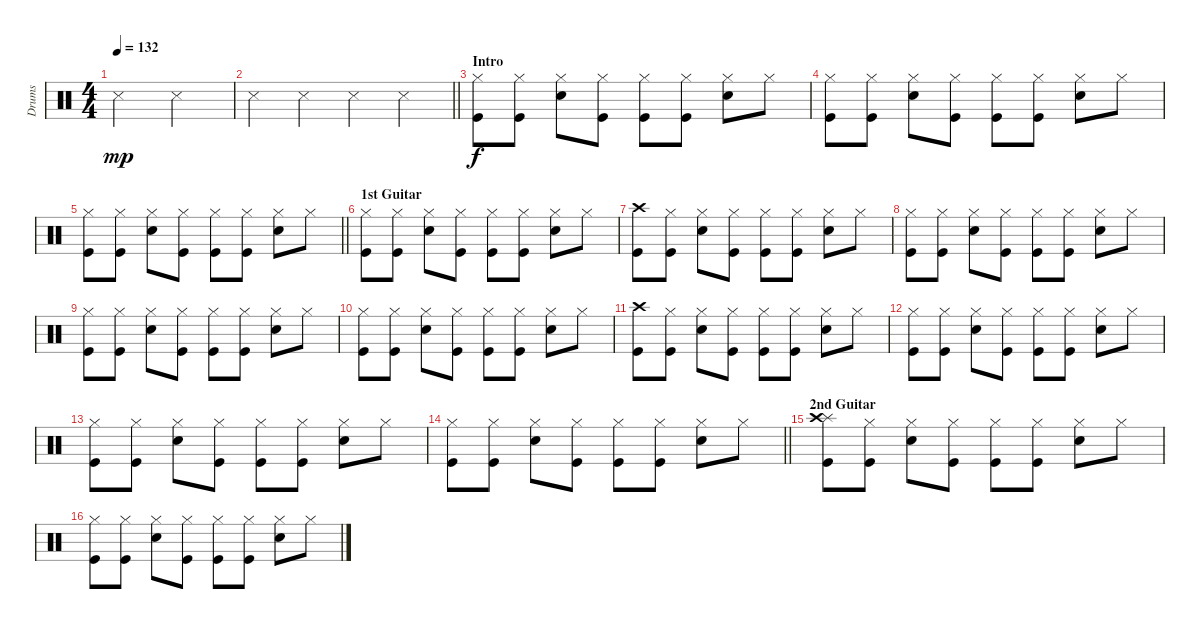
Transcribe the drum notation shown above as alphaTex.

\track ("Drums" "Drums") {instrument percussion}
\staff {score}
\articulation defaults
\ts (4 4)
\tempo 132
\clef neutral
\ks c "Snare (side stick) 3".2{dy mp} "Snare (side stick) 3".2
|
\barLineRight lightlight "Snare (side stick) 3".4 "Snare (side stick) 3".4 "Snare (side stick) 3".4 "Snare (side stick) 3".4
|
\section ("" "Intro")
("Hi-Hat (closed)" "Kick (hit)").8{dy f} ("Hi-Hat (closed)" "Kick (hit)").8 ("Hi-Hat (closed)" "Snare (hit) 2").8 ("Hi-Hat (closed)" "Kick (hit)").8 ("Hi-Hat (closed)" "Kick (hit)").8 ("Hi-Hat (closed)" "Kick (hit)").8 ("Hi-Hat (closed)" "Snare (hit) 2").8 "Hi-Hat (closed)".8 |
("Hi-Hat (closed)" "Kick (hit)").8 ("Hi-Hat (closed)" "Kick (hit)").8 ("Hi-Hat (closed)" "Snare (hit) 2").8 ("Hi-Hat (closed)" "Kick (hit)").8 ("Kick (hit)" "Hi-Hat (closed)").8 ("Hi-Hat (closed)" "Kick (hit)").8 ("Snare (hit) 2" "Hi-Hat (closed)").8 "Hi-Hat (closed)".8 |
\barLineRight lightlight
("Hi-Hat (closed)" "Kick (hit)").8 ("Hi-Hat (closed)" "Kick (hit)").8 ("Hi-Hat (closed)" "Snare (hit) 2").8 ("Hi-Hat (closed)" "Kick (hit)").8 ("Hi-Hat (closed)" "Kick (hit)").8 ("Kick (hit)" "Hi-Hat (closed)").8 ("Hi-Hat (closed)" "Snare (hit) 2").8 "Hi-Hat (closed)".8 |
\section ("" "1st Guitar")
("Kick (hit)" "Hi-Hat (closed)").8 ("Kick (hit)" "Hi-Hat (closed)").8 ("Hi-Hat (closed)" "Snare (hit) 2").8 ("Hi-Hat (closed)" "Kick (hit)").8 ("Hi-Hat (closed)" "Kick (hit)").8 ("Hi-Hat (closed)" "Kick (hit)").8 ("Snare (hit) 2" "Hi-Hat (closed)").8 "Hi-Hat (closed)".8 |
("Crash high (hit)" "Kick (hit)").8 ("Hi-Hat (closed)" "Kick (hit)").8 ("Hi-Hat (closed)" "Snare (hit) 2").8 ("Hi-Hat (closed)" "Kick (hit)").8 ("Hi-Hat (closed)" "Kick (hit)").8 ("Kick (hit)" "Hi-Hat (closed)").8 ("Hi-Hat (closed)" "Snare (hit) 2").8 "Hi-Hat (closed)".8 |
("Kick (hit)" "Hi-Hat (closed)").8 ("Kick (hit)" "Hi-Hat (closed)").8 ("Hi-Hat (closed)" "Snare (hit) 2").8 ("Hi-Hat (closed)" "Kick (hit)").8 ("Kick (hit)" "Hi-Hat (closed)").8 ("Hi-Hat (closed)" "Kick (hit)").8 ("Hi-Hat (closed)" "Snare (hit) 2").8 "Hi-Hat (closed)".8 |
("Hi-Hat (closed)" "Kick (hit)").8 ("Hi-Hat (closed)" "Kick (hit)").8 ("Hi-Hat (closed)" "Snare (hit) 2").8 ("Hi-Hat (closed)" "Kick (hit)").8 ("Hi-Hat (closed)" "Kick (hit)").8 ("Kick (hit)" "Hi-Hat (closed)").8 ("Hi-Hat (closed)" "Snare (hit) 2").8 "Hi-Hat (closed)".8 |
("Hi-Hat (closed)" "Kick (hit)").8 ("Hi-Hat (closed)" "Kick (hit)").8 ("Hi-Hat (closed)" "Snare (hit) 2").8 ("Hi-Hat (closed)" "Kick (hit)").8 ("Hi-Hat (closed)" "Kick (hit)").8 ("Kick (hit)" "Hi-Hat (closed)").8 ("Hi-Hat (closed)" "Snare (hit) 2").8 "Hi-Hat (closed)".8 |
("Crash high (hit)" "Kick (hit)").8 ("Hi-Hat (closed)" "Kick (hit)").8 ("Hi-Hat (closed)" "Snare (hit) 2").8 ("Hi-Hat (closed)" "Kick (hit)").8 ("Hi-Hat (closed)" "Kick (hit)").8 ("Kick (hit)" "Hi-Hat (closed)").8 ("Hi-Hat (closed)" "Snare (hit) 2").8 "Hi-Hat (closed)".8 |
("Kick (hit)" "Hi-Hat (closed)").8 ("Kick (hit)" "Hi-Hat (closed)").8 ("Hi-Hat (closed)" "Snare (hit) 2").8 ("Hi-Hat (closed)" "Kick (hit)").8 ("Hi-Hat (closed)" "Kick (hit)").8 ("Hi-Hat (closed)" "Kick (hit)").8 ("Snare (hit) 2" "Hi-Hat (closed)").8 "Hi-Hat (closed)".8 |
("Hi-Hat (closed)" "Kick (hit)").8 ("Hi-Hat (closed)" "Kick (hit)").8 ("Hi-Hat (closed)" "Snare (hit) 2").8 ("Hi-Hat (closed)" "Kick (hit)").8 ("Hi-Hat (closed)" "Kick (hit)").8 ("Kick (hit)" "Hi-Hat (closed)").8 ("Hi-Hat (closed)" "Snare (hit) 2").8 "Hi-Hat (closed)".8 |
\barLineRight lightlight
("Hi-Hat (closed)" "Kick (hit)").8 ("Hi-Hat (closed)" "Kick (hit)").8 ("Hi-Hat (closed)" "Snare (hit) 2").8 ("Hi-Hat (closed)" "Kick (hit)").8 ("Kick (hit)" "Hi-Hat (closed)").8 ("Hi-Hat (closed)" "Kick (hit)").8 ("Snare (hit) 2" "Hi-Hat (closed)").8 "Hi-Hat (closed)".8 |
\section ("" "2nd Guitar")
("Splash (hit)" "Crash high (hit)" "Kick (hit)").8 ("Hi-Hat (closed)" "Kick (hit)").8 ("Hi-Hat (closed)" "Snare (hit) 2").8 ("Hi-Hat (closed)" "Kick (hit)").8 ("Hi-Hat (closed)" "Kick (hit)").8 ("Hi-Hat (closed)" "Kick (hit)").8 ("Hi-Hat (closed)" "Snare (hit) 2").8 "Hi-Hat (closed)".8 |
("Kick (hit)" "Hi-Hat (closed)").8 ("Kick (hit)" "Hi-Hat (closed)").8 ("Hi-Hat (closed)" "Snare (hit) 2").8 ("Hi-Hat (closed)" "Kick (hit)").8 ("Kick (hit)" "Hi-Hat (closed)").8 ("Hi-Hat (closed)" "Kick (hit)").8 ("Snare (hit) 2" "Hi-Hat (closed)").8 "Hi-Hat (closed)".8
